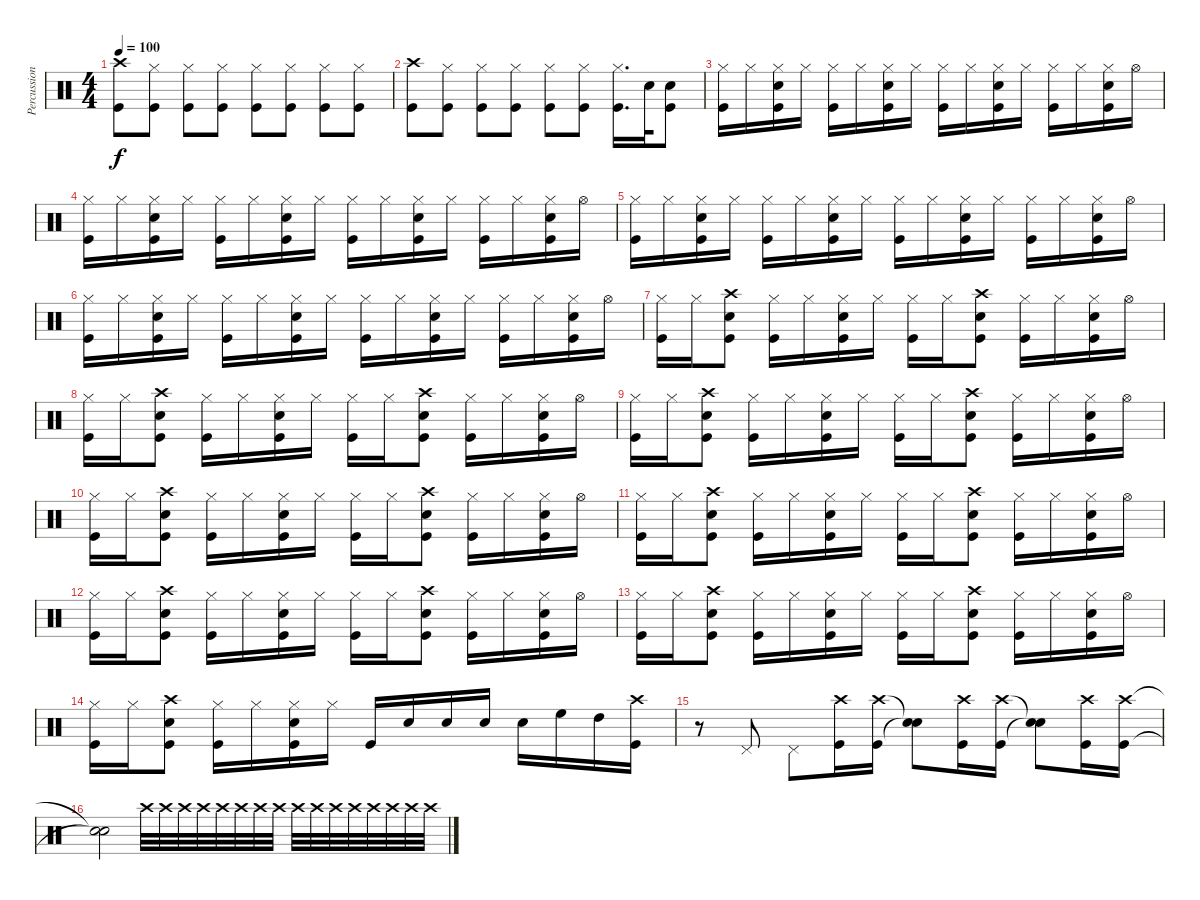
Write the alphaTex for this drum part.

\track ("Percussions" "Percussion") {instrument percussion}
\staff {score}
\articulation defaults
\ts (4 4)
\tempo 100
\clef neutral
\ks c
("Crash high (hit)" "Kick (hit)").8{dy f} ("Hi-Hat (closed)" "Kick (hit)").8 ("Hi-Hat (closed)" "Kick (hit)").8 ("Hi-Hat (closed)" "Kick (hit)").8 ("Hi-Hat (closed)" "Kick (hit)").8 ("Hi-Hat (closed)" "Kick (hit)").8 ("Hi-Hat (closed)" "Kick (hit)").8 ("Hi-Hat (closed)" "Kick (hit)").8 |
("Crash high (hit)" "Kick (hit)").8 ("Hi-Hat (closed)" "Kick (hit)").8 ("Hi-Hat (closed)" "Kick (hit)").8 ("Hi-Hat (closed)" "Kick (hit)").8 ("Hi-Hat (closed)" "Kick (hit)").8 ("Hi-Hat (closed)" "Kick (hit)").8 ("Hi-Hat (closed)" "Kick (hit)").16{d} "Snare (hit) 2".32 ("Snare (hit) 2" "Kick (hit)").8 |
("Hi-Hat (closed)" "Kick (hit)").16 "Hi-Hat (closed)".16 ("Hi-Hat (closed)" "Snare (hit) 2" "Kick (hit)").16 "Hi-Hat (closed)".16 ("Hi-Hat (closed)" "Kick (hit)").16 "Hi-Hat (closed)".16 ("Hi-Hat (closed)" "Snare (hit) 2" "Kick (hit)").16 "Hi-Hat (closed)".16 ("Hi-Hat (closed)" "Kick (hit)").16 "Hi-Hat (closed)".16 ("Hi-Hat (closed)" "Snare (hit) 2" "Kick (hit)").16 "Hi-Hat (closed)".16 ("Hi-Hat (closed)" "Kick (hit)").16 "Hi-Hat (closed)".16 ("Hi-Hat (closed)" "Snare (hit) 2" "Kick (hit)").16 "Hi-Hat (open)".16 |
("Hi-Hat (closed)" "Kick (hit)").16 "Hi-Hat (closed)".16 ("Hi-Hat (closed)" "Snare (hit) 2" "Kick (hit)").16 "Hi-Hat (closed)".16 ("Hi-Hat (closed)" "Kick (hit)").16 "Hi-Hat (closed)".16 ("Hi-Hat (closed)" "Snare (hit) 2" "Kick (hit)").16 "Hi-Hat (closed)".16 ("Hi-Hat (closed)" "Kick (hit)").16 "Hi-Hat (closed)".16 ("Hi-Hat (closed)" "Snare (hit) 2" "Kick (hit)").16 "Hi-Hat (closed)".16 ("Hi-Hat (closed)" "Kick (hit)").16 "Hi-Hat (closed)".16 ("Hi-Hat (closed)" "Snare (hit) 2" "Kick (hit)").16 "Hi-Hat (open)".16 |
("Hi-Hat (closed)" "Kick (hit)").16 "Hi-Hat (closed)".16 ("Hi-Hat (closed)" "Snare (hit) 2" "Kick (hit)").16 "Hi-Hat (closed)".16 ("Hi-Hat (closed)" "Kick (hit)").16 "Hi-Hat (closed)".16 ("Hi-Hat (closed)" "Snare (hit) 2" "Kick (hit)").16 "Hi-Hat (closed)".16 ("Hi-Hat (closed)" "Kick (hit)").16 "Hi-Hat (closed)".16 ("Hi-Hat (closed)" "Snare (hit) 2" "Kick (hit)").16 "Hi-Hat (closed)".16 ("Hi-Hat (closed)" "Kick (hit)").16 "Hi-Hat (closed)".16 ("Hi-Hat (closed)" "Snare (hit) 2" "Kick (hit)").16 "Hi-Hat (open)".16 |
("Hi-Hat (closed)" "Kick (hit)").16 "Hi-Hat (closed)".16 ("Hi-Hat (closed)" "Snare (hit) 2" "Kick (hit)").16 "Hi-Hat (closed)".16 ("Hi-Hat (closed)" "Kick (hit)").16 "Hi-Hat (closed)".16 ("Hi-Hat (closed)" "Snare (hit) 2" "Kick (hit)").16 "Hi-Hat (closed)".16 ("Hi-Hat (closed)" "Kick (hit)").16 "Hi-Hat (closed)".16 ("Hi-Hat (closed)" "Snare (hit) 2" "Kick (hit)").16 "Hi-Hat (closed)".16 ("Hi-Hat (closed)" "Kick (hit)").16 "Hi-Hat (closed)".16 ("Hi-Hat (closed)" "Snare (hit) 2" "Kick (hit)").16 "Hi-Hat (open)".16 |
("Hi-Hat (closed)" "Kick (hit)").16 "Hi-Hat (closed)".16 ("Crash high (hit)" "Snare (hit) 2" "Kick (hit)").8 ("Hi-Hat (closed)" "Kick (hit)").16 "Hi-Hat (closed)".16 ("Hi-Hat (closed)" "Snare (hit) 2" "Kick (hit)").16 "Hi-Hat (closed)".16 ("Hi-Hat (closed)" "Kick (hit)").16 "Hi-Hat (closed)".16 ("Crash high (hit)" "Snare (hit) 2" "Kick (hit)").8 ("Hi-Hat (closed)" "Kick (hit)").16 "Hi-Hat (closed)".16 ("Hi-Hat (closed)" "Snare (hit) 2" "Kick (hit)").16 "Hi-Hat (open)".16 |
("Hi-Hat (closed)" "Kick (hit)").16 "Hi-Hat (closed)".16 ("Crash high (hit)" "Snare (hit) 2" "Kick (hit)").8 ("Hi-Hat (closed)" "Kick (hit)").16 "Hi-Hat (closed)".16 ("Hi-Hat (closed)" "Snare (hit) 2" "Kick (hit)").16 "Hi-Hat (closed)".16 ("Hi-Hat (closed)" "Kick (hit)").16 "Hi-Hat (closed)".16 ("Crash high (hit)" "Snare (hit) 2" "Kick (hit)").8 ("Hi-Hat (closed)" "Kick (hit)").16 "Hi-Hat (closed)".16 ("Hi-Hat (closed)" "Snare (hit) 2" "Kick (hit)").16 "Hi-Hat (open)".16 |
("Hi-Hat (closed)" "Kick (hit)").16 "Hi-Hat (closed)".16 ("Crash high (hit)" "Snare (hit) 2" "Kick (hit)").8 ("Hi-Hat (closed)" "Kick (hit)").16 "Hi-Hat (closed)".16 ("Hi-Hat (closed)" "Snare (hit) 2" "Kick (hit)").16 "Hi-Hat (closed)".16 ("Hi-Hat (closed)" "Kick (hit)").16 "Hi-Hat (closed)".16 ("Crash high (hit)" "Snare (hit) 2" "Kick (hit)").8 ("Hi-Hat (closed)" "Kick (hit)").16 "Hi-Hat (closed)".16 ("Hi-Hat (closed)" "Snare (hit) 2" "Kick (hit)").16 "Hi-Hat (open)".16 |
("Hi-Hat (closed)" "Kick (hit)").16 "Hi-Hat (closed)".16 ("Crash high (hit)" "Snare (hit) 2" "Kick (hit)").8 ("Hi-Hat (closed)" "Kick (hit)").16 "Hi-Hat (closed)".16 ("Hi-Hat (closed)" "Snare (hit) 2" "Kick (hit)").16 "Hi-Hat (closed)".16 ("Hi-Hat (closed)" "Kick (hit)").16 "Hi-Hat (closed)".16 ("Crash high (hit)" "Snare (hit) 2" "Kick (hit)").8 ("Hi-Hat (closed)" "Kick (hit)").16 "Hi-Hat (closed)".16 ("Hi-Hat (closed)" "Snare (hit) 2" "Kick (hit)").16 "Hi-Hat (open)".16 |
("Hi-Hat (closed)" "Kick (hit)").16 "Hi-Hat (closed)".16 ("Crash high (hit)" "Snare (hit) 2" "Kick (hit)").8 ("Hi-Hat (closed)" "Kick (hit)").16 "Hi-Hat (closed)".16 ("Hi-Hat (closed)" "Snare (hit) 2" "Kick (hit)").16 "Hi-Hat (closed)".16 ("Hi-Hat (closed)" "Kick (hit)").16 "Hi-Hat (closed)".16 ("Crash high (hit)" "Snare (hit) 2" "Kick (hit)").8 ("Hi-Hat (closed)" "Kick (hit)").16 "Hi-Hat (closed)".16 ("Hi-Hat (closed)" "Snare (hit) 2" "Kick (hit)").16 "Hi-Hat (open)".16 |
("Hi-Hat (closed)" "Kick (hit)").16 "Hi-Hat (closed)".16 ("Crash high (hit)" "Snare (hit) 2" "Kick (hit)").8 ("Hi-Hat (closed)" "Kick (hit)").16 "Hi-Hat (closed)".16 ("Hi-Hat (closed)" "Snare (hit) 2" "Kick (hit)").16 "Hi-Hat (closed)".16 ("Hi-Hat (closed)" "Kick (hit)").16 "Hi-Hat (closed)".16 ("Crash high (hit)" "Snare (hit) 2" "Kick (hit)").8 ("Hi-Hat (closed)" "Kick (hit)").16 "Hi-Hat (closed)".16 ("Hi-Hat (closed)" "Snare (hit) 2" "Kick (hit)").16 "Hi-Hat (open)".16 |
("Hi-Hat (closed)" "Kick (hit)").16 "Hi-Hat (closed)".16 ("Crash high (hit)" "Snare (hit) 2" "Kick (hit)").8 ("Hi-Hat (closed)" "Kick (hit)").16 "Hi-Hat (closed)".16 ("Hi-Hat (closed)" "Snare (hit) 2" "Kick (hit)").16 "Hi-Hat (closed)".16 ("Hi-Hat (closed)" "Kick (hit)").16 "Hi-Hat (closed)".16 ("Crash high (hit)" "Snare (hit) 2" "Kick (hit)").8 ("Hi-Hat (closed)" "Kick (hit)").16 "Hi-Hat (closed)".16 ("Hi-Hat (closed)" "Snare (hit) 2" "Kick (hit)").16 "Hi-Hat (open)".16 |
("Hi-Hat (closed)" "Kick (hit)").16 "Hi-Hat (closed)".16 ("Crash high (hit)" "Snare (hit) 2" "Kick (hit)").8 ("Hi-Hat (closed)" "Kick (hit)").16 "Hi-Hat (closed)".16 ("Hi-Hat (closed)" "Snare (hit) 2" "Kick (hit)").16 "Hi-Hat (closed)".16 "Kick (hit)".16 "Snare (hit) 2".16 "Snare (hit) 2".16 "Snare (hit) 2".16 "Snare (hit) 2".16 "High Floor Tom (hit)".16 "High Tom (hit)".16 ("Crash high (hit)" "Kick (hit)").16 |
r.8 "Pedal Hi-Hat (hit)".8 "Pedal Hi-Hat (hit)".8 ("Crash high (hit)" "Kick (hit)").16 ("Crash high (hit)" "Kick (hit)").16 ("Snare (hit)"{t} "Snare (hit)"{t}).8 ("Crash high (hit)" "Kick (hit)").16 ("Crash high (hit)" "Kick (hit)").16 ("Snare (hit)"{t} "Snare (hit)"{t}).8 ("Crash high (hit)" "Kick (hit)").16 ("Crash high (hit)" "Kick (hit)").16 |
("Snare (hit)"{t} "Snare (hit)"{t}).2 "Crash high (hit)".32 "Crash high (hit)".32 "Crash high (hit)".32 "Crash high (hit)".32 "Crash high (hit)".32 "Crash high (hit)".32 "Crash high (hit)".32 "Crash high (hit)".32 "Crash high (hit)".32 "Crash high (hit)".32 "Crash high (hit)".32 "Crash high (hit)".32 "Crash high (hit)".32 "Crash high (hit)".32 "Crash high (hit)".32 "Crash high (hit)".32
